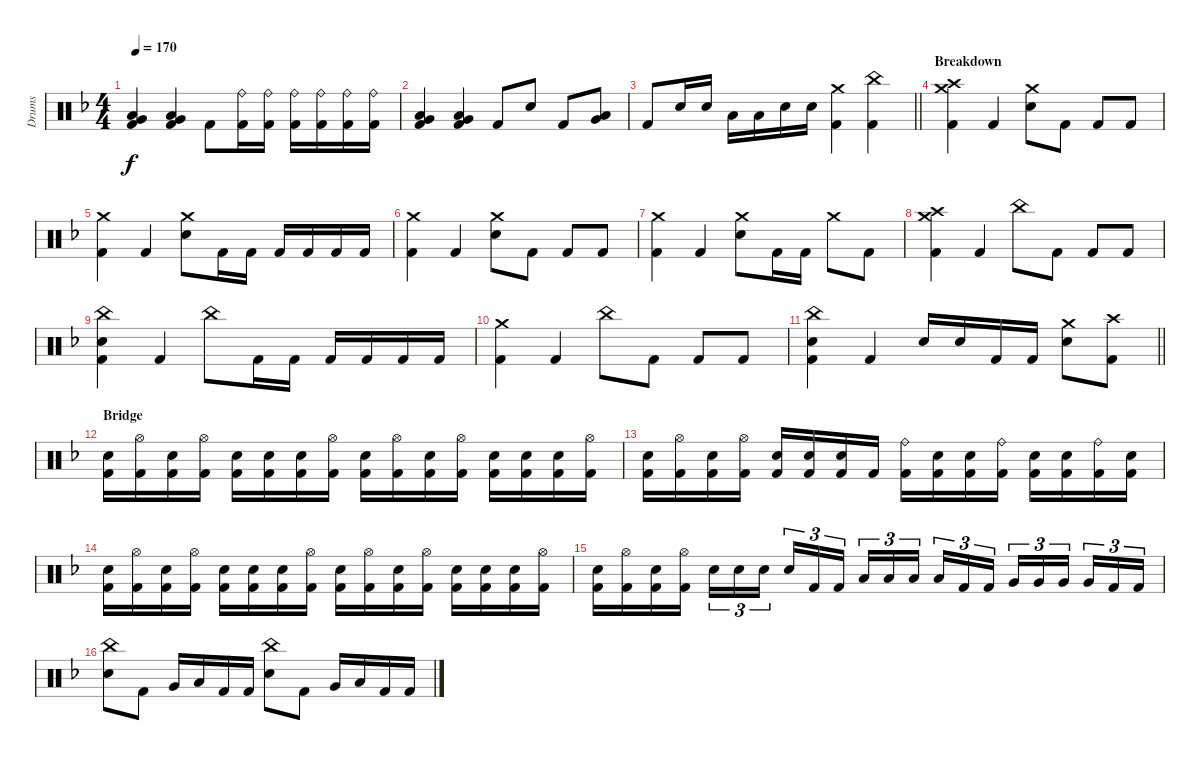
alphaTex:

\track ("Drums" "Drums") {instrument percussion}
\staff {score}
\articulation defaults
\ts (4 4)
\tempo 170
\clef neutral
\ks dminor
("Very Low Tom (hit)" "Low Floor Tom (hit)" "Kick (hit) 2").4{dy f} ("Very Low Tom (hit)" "Low Floor Tom (hit)" "Kick (hit) 2").4 "Kick (hit) 2".8 ("Ride (bell)" "Kick (hit) 2").16 ("Ride (bell)" "Kick (hit) 2").16 ("Ride (bell)" "Kick (hit) 2").16 ("Ride (bell)" "Kick (hit) 2").16 ("Ride (bell)" "Kick (hit) 2").16 ("Ride (bell)" "Kick (hit) 2").16 |
("Very Low Tom (hit)" "Low Floor Tom (hit)" "Kick (hit) 2").4 ("Very Low Tom (hit)" "Low Floor Tom (hit)" "Kick (hit) 2").4 "Kick (hit) 2".8 "Electric Snare (hit)".8 "Kick (hit) 2".8 ("Low Tom (hit)" "Very Low Tom (hit)").8 |
\barLineRight lightlight "Kick (hit) 2".8 "Electric Snare (hit)".16 "Electric Snare (hit)".16 "Low Tom (hit)".16 "Low Tom (hit)".16 "Electric Snare (hit)".16 "Electric Snare (hit)".16
("Crash medium (hit)" "Kick (hit) 2").4 ("China (hit)" "Kick (hit) 2").4 |
\section ("" "Breakdown")
("Crash medium (hit)" "Crash high (hit)" "Kick (hit) 2").4 "Kick (hit) 2".4 ("Crash medium (hit)" "Electric Snare (hit)").8 "Kick (hit) 2".8 "Kick (hit) 2".8 "Kick (hit) 2".8 |
("Crash medium (hit)" "Kick (hit) 2").4 "Kick (hit) 2".4 ("Crash medium (hit)" "Electric Snare (hit)").8 "Kick (hit) 2".16 "Kick (hit) 2".16 "Kick (hit) 2".16 "Kick (hit) 2".16 "Kick (hit) 2".16 "Kick (hit) 2".16 |
("Crash medium (hit)" "Kick (hit) 2").4 "Kick (hit) 2".4 ("Crash medium (hit)" "Electric Snare (hit)").8 "Kick (hit) 2".8 "Kick (hit) 2".8 "Kick (hit) 2".8 |
("Crash medium (hit)" "Kick (hit) 2").4 "Kick (hit) 2".4 ("Crash medium (hit)" "Electric Snare (hit)").8 "Kick (hit) 2".16 "Kick (hit) 2".16 "Crash medium (hit)".8 "Kick (hit) 2".8 |
("Crash medium (hit)" "Crash high (hit)" "Kick (hit) 2").4 "Kick (hit) 2".4 "China (hit)".8 "Kick (hit) 2".8 "Kick (hit) 2".8 "Kick (hit) 2".8 |
("China (hit)" "Electric Snare (hit)" "Kick (hit) 2").4 "Kick (hit) 2".4 "China (hit)".8 "Kick (hit) 2".16 "Kick (hit) 2".16 "Kick (hit) 2".16 "Kick (hit) 2".16 "Kick (hit) 2".16 "Kick (hit) 2".16 |
("Crash medium (hit)" "Kick (hit) 2").4 "Kick (hit) 2".4 "China (hit)".8 "Kick (hit) 2".8 "Kick (hit) 2".8 "Kick (hit) 2".8 |
\barLineRight lightlight
("China (hit)" "Electric Snare (hit)" "Kick (hit) 2").4 "Kick (hit) 2".4 "Electric Snare (hit)".16 "Electric Snare (hit)".16 "Kick (hit) 2".16 "Kick (hit) 2".16 ("Crash medium (hit)" "Electric Snare (hit)").8 ("Crash high (hit)" "Kick (hit) 2").8 |
\section ("" "Bridge")
("Electric Snare (hit)" "Kick (hit) 2").16 ("Hi-Hat (open)" "Kick (hit) 2").16 ("Electric Snare (hit)" "Kick (hit) 2").16 ("Hi-Hat (open)" "Kick (hit) 2").16 ("Electric Snare (hit)" "Kick (hit) 2").16 ("Electric Snare (hit)" "Kick (hit) 2").16 ("Electric Snare (hit)" "Kick (hit) 2").16 ("Hi-Hat (open)" "Kick (hit) 2").16 ("Electric Snare (hit)" "Kick (hit) 2").16 ("Hi-Hat (open)" "Kick (hit) 2").16 ("Electric Snare (hit)" "Kick (hit) 2").16 ("Hi-Hat (open)" "Kick (hit) 2").16 ("Electric Snare (hit)" "Kick (hit) 2").16 ("Electric Snare (hit)" "Kick (hit) 2").16 ("Electric Snare (hit)" "Kick (hit) 2").16 ("Hi-Hat (open)" "Kick (hit) 2").16 |
("Electric Snare (hit)" "Kick (hit) 2").16 ("Hi-Hat (open)" "Kick (hit) 2").16 ("Electric Snare (hit)" "Kick (hit) 2").16 ("Hi-Hat (open)" "Kick (hit) 2").16 ("Electric Snare (hit)" "Kick (hit) 2").16 ("Electric Snare (hit)" "Kick (hit) 2").16 ("Electric Snare (hit)" "Kick (hit) 2").16 "Kick (hit) 2".16 ("Ride (bell)" "Kick (hit) 2").16 ("Electric Snare (hit)" "Kick (hit) 2").16 ("Electric Snare (hit)" "Kick (hit) 2").16 ("Ride (bell)" "Kick (hit) 2").16 ("Electric Snare (hit)" "Kick (hit) 2").16 ("Electric Snare (hit)" "Kick (hit) 2").16 ("Ride (bell)" "Kick (hit) 2").16 ("Electric Snare (hit)" "Kick (hit) 2").16 |
("Electric Snare (hit)" "Kick (hit) 2").16 ("Hi-Hat (open)" "Kick (hit) 2").16 ("Electric Snare (hit)" "Kick (hit) 2").16 ("Hi-Hat (open)" "Kick (hit) 2").16 ("Electric Snare (hit)" "Kick (hit) 2").16 ("Electric Snare (hit)" "Kick (hit) 2").16 ("Electric Snare (hit)" "Kick (hit) 2").16 ("Hi-Hat (open)" "Kick (hit) 2").16 ("Electric Snare (hit)" "Kick (hit) 2").16 ("Hi-Hat (open)" "Kick (hit) 2").16 ("Electric Snare (hit)" "Kick (hit) 2").16 ("Hi-Hat (open)" "Kick (hit) 2").16 ("Electric Snare (hit)" "Kick (hit) 2").16 ("Electric Snare (hit)" "Kick (hit) 2").16 ("Electric Snare (hit)" "Kick (hit) 2").16 ("Hi-Hat (open)" "Kick (hit) 2").16 |
("Electric Snare (hit)" "Kick (hit) 2").16 ("Hi-Hat (open)" "Kick (hit) 2").16 ("Electric Snare (hit)" "Kick (hit) 2").16 ("Hi-Hat (open)" "Kick (hit) 2").16 "Electric Snare (hit)".16{tu (3 2)} "Electric Snare (hit)".16{tu (3 2)} "Electric Snare (hit)".16{tu (3 2) beam splitsecondary} "Electric Snare (hit)".16{tu (3 2)} "Kick (hit) 2".16{tu (3 2)} "Kick (hit) 2".16{tu (3 2)} "Low Tom (hit)".16{tu (3 2)} "Low Tom (hit)".16{tu (3 2)} "Low Tom (hit)".16{tu (3 2) beam splitsecondary} "Low Tom (hit)".16{tu (3 2)} "Kick (hit) 2".16{tu (3 2)} "Kick (hit) 2".16{tu (3 2)} "Very Low Tom (hit)".16{tu (3 2)} "Very Low Tom (hit)".16{tu (3 2)} "Very Low Tom (hit)".16{tu (3 2) beam splitsecondary} "Very Low Tom (hit)".16{tu (3 2)} "Kick (hit) 2".16{tu (3 2)} "Kick (hit) 2".16{tu (3 2)} |
("China (hit)" "Electric Snare (hit)").8 "Kick (hit) 2".8 "Very Low Tom (hit)".16 "Low Tom (hit)".16 "Kick (hit) 2".16 "Kick (hit) 2".16 ("China (hit)" "Electric Snare (hit)").8 "Kick (hit) 2".8 "Very Low Tom (hit)".16 "Low Tom (hit)".16 "Kick (hit) 2".16 "Kick (hit) 2".16
